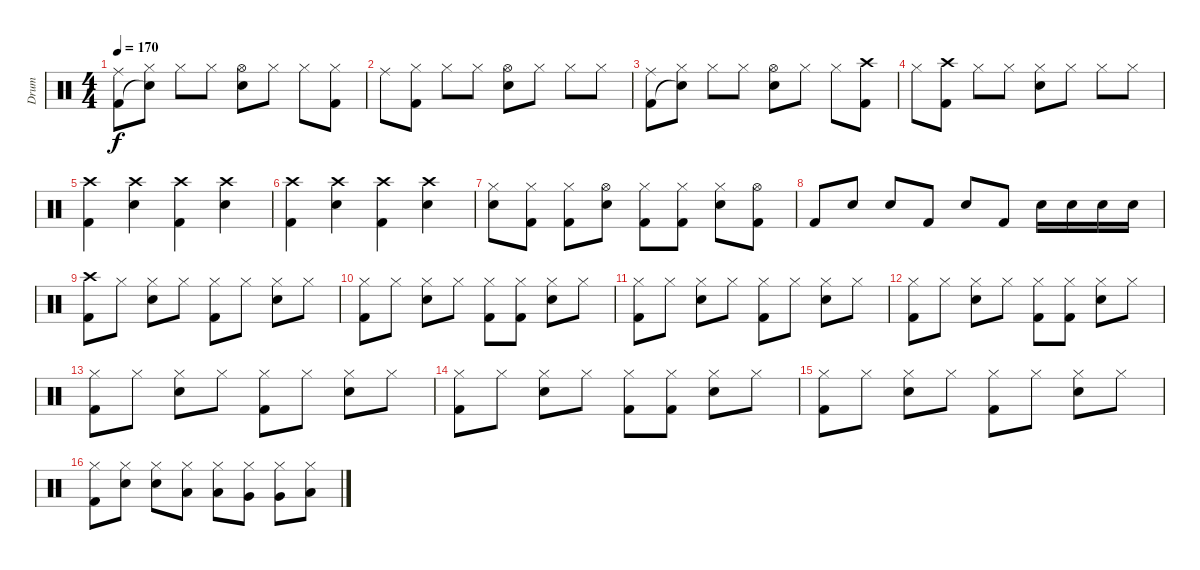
\track ("Drum" "Drum") {instrument percussion}
\staff {score}
\articulation defaults
\ts (4 4)
\tempo 170
\clef neutral
\ks c
("Ride (middle)" "Kick (hit) 2").8{dy f} ("Hi-Hat (closed)" "Snare (hit)"{t}).8 "Hi-Hat (closed)".8 "Hi-Hat (closed)".8 ("Hi-Hat (open)" "Snare (hit) 2").8 "Hi-Hat (closed)".8 "Hi-Hat (closed)".8 ("Hi-Hat (closed)" "Kick (hit) 2").8 |
"Ride (middle)".8 ("Hi-Hat (closed)" "Kick (hit) 2").8 "Hi-Hat (closed)".8 "Hi-Hat (closed)".8 ("Hi-Hat (open)" "Snare (hit) 2").8 "Hi-Hat (closed)".8 "Hi-Hat (closed)".8 "Hi-Hat (closed)".8 |
("Ride (middle)" "Kick (hit) 2").8 ("Hi-Hat (closed)" "Snare (hit)"{t}).8 "Hi-Hat (closed)".8 "Hi-Hat (closed)".8 ("Hi-Hat (open)" "Snare (hit) 2").8 "Hi-Hat (closed)".8 "Hi-Hat (closed)".8 ("Crash high (hit)" "Kick (hit) 2").8 |
"Hi-Hat (closed)".8 ("Crash high (hit)" "Kick (hit) 2").8 "Hi-Hat (closed)".8 "Hi-Hat (closed)".8 ("Hi-Hat (closed)" "Snare (hit) 2").8 "Hi-Hat (closed)".8 "Hi-Hat (closed)".8 "Hi-Hat (closed)".8 |
("Crash high (hit)" "Kick (hit) 2").4 ("Crash high (hit)" "Snare (hit) 2").4 ("Crash high (hit)" "Kick (hit) 2").4 ("Crash high (hit)" "Snare (hit) 2").4 |
("Crash high (hit)" "Kick (hit) 2").4 ("Crash high (hit)" "Snare (hit) 2").4 ("Crash high (hit)" "Kick (hit) 2").4 ("Crash high (hit)" "Snare (hit) 2").4 |
("Snare (hit) 2" "Hi-Hat (closed)").8 ("Kick (hit) 2" "Hi-Hat (closed)").8 ("Kick (hit) 2" "Hi-Hat (closed)").8 ("Snare (hit) 2" "Hi-Hat (open)").8 ("Kick (hit) 2" "Hi-Hat (closed)").8 ("Kick (hit) 2" "Hi-Hat (closed)").8 ("Snare (hit) 2" "Hi-Hat (closed)").8 ("Kick (hit) 2" "Hi-Hat (open)").8 |
"Kick (hit) 2".8 "Snare (hit) 2".8 "Snare (hit) 2".8 "Kick (hit) 2".8 "Snare (hit) 2".8 "Kick (hit) 2".8 "Snare (hit) 2".16 "Snare (hit) 2".16 "Snare (hit) 2".16 "Snare (hit) 2".16 |
("Crash high (hit)" "Kick (hit) 2").8 "Hi-Hat (closed)".8 ("Hi-Hat (closed)" "Snare (hit) 2").8 "Hi-Hat (closed)".8 ("Hi-Hat (closed)" "Kick (hit) 2").8 "Hi-Hat (closed)".8 ("Hi-Hat (closed)" "Snare (hit) 2").8 "Hi-Hat (closed)".8 |
("Hi-Hat (closed)" "Kick (hit) 2").8 "Hi-Hat (closed)".8 ("Hi-Hat (closed)" "Snare (hit) 2").8 "Hi-Hat (closed)".8 ("Hi-Hat (closed)" "Kick (hit) 2").8 ("Hi-Hat (closed)" "Kick (hit) 2").8 ("Hi-Hat (closed)" "Snare (hit) 2").8 "Hi-Hat (closed)".8 |
("Hi-Hat (closed)" "Kick (hit) 2").8 "Hi-Hat (closed)".8 ("Hi-Hat (closed)" "Snare (hit) 2").8 "Hi-Hat (closed)".8 ("Hi-Hat (closed)" "Kick (hit) 2").8 "Hi-Hat (closed)".8 ("Hi-Hat (closed)" "Snare (hit) 2").8 "Hi-Hat (closed)".8 |
("Hi-Hat (closed)" "Kick (hit) 2").8 "Hi-Hat (closed)".8 ("Hi-Hat (closed)" "Snare (hit) 2").8 "Hi-Hat (closed)".8 ("Hi-Hat (closed)" "Kick (hit) 2").8 ("Hi-Hat (closed)" "Kick (hit) 2").8 ("Hi-Hat (closed)" "Snare (hit) 2").8 "Hi-Hat (closed)".8 |
("Hi-Hat (closed)" "Kick (hit) 2").8 "Hi-Hat (closed)".8 ("Hi-Hat (closed)" "Snare (hit) 2").8 "Hi-Hat (closed)".8 ("Hi-Hat (closed)" "Kick (hit) 2").8 "Hi-Hat (closed)".8 ("Hi-Hat (closed)" "Snare (hit) 2").8 "Hi-Hat (closed)".8 |
("Hi-Hat (closed)" "Kick (hit) 2").8 "Hi-Hat (closed)".8 ("Hi-Hat (closed)" "Snare (hit) 2").8 "Hi-Hat (closed)".8 ("Hi-Hat (closed)" "Kick (hit) 2").8 ("Hi-Hat (closed)" "Kick (hit) 2").8 ("Hi-Hat (closed)" "Snare (hit) 2").8 "Hi-Hat (closed)".8 |
("Hi-Hat (closed)" "Kick (hit) 2").8 "Hi-Hat (closed)".8 ("Hi-Hat (closed)" "Snare (hit) 2").8 "Hi-Hat (closed)".8 ("Hi-Hat (closed)" "Kick (hit) 2").8 "Hi-Hat (closed)".8 ("Hi-Hat (closed)" "Snare (hit) 2").8 "Hi-Hat (closed)".8 |
("Hi-Hat (closed)" "Kick (hit) 2").8 ("Hi-Hat (closed)" "Snare (hit) 2").8 ("Hi-Hat (closed)" "Snare (hit) 2").8 ("Hi-Hat (closed)" "Low Tom (hit)").8 ("Hi-Hat (closed)" "Low Tom (hit)").8 ("Hi-Hat (closed)" "Very Low Tom (hit)").8 ("Hi-Hat (closed)" "Very Low Tom (hit)").8 ("Hi-Hat (closed)" "Low Floor Tom (hit)").8
